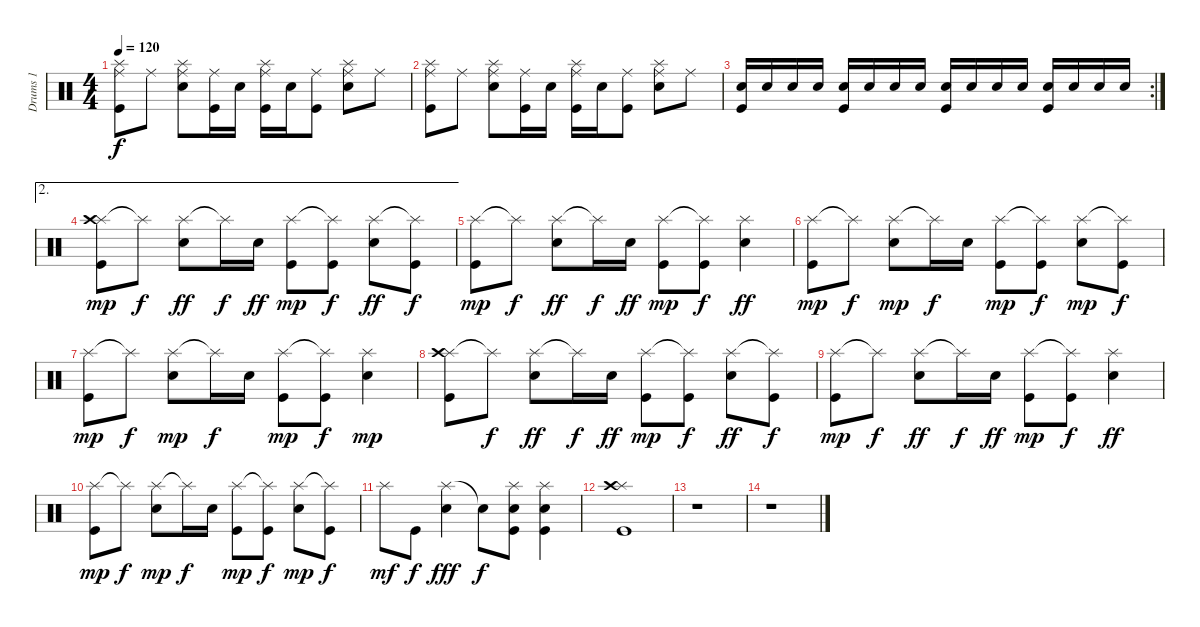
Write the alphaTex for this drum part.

\track ("Drums 1" "Drums 1") {instrument percussion}
\staff {score}
\articulation defaults
\ts (4 4)
\tempo 120
\clef neutral
\ks c
("Splash (hit)" "Kick (hit)" "Ride (middle)").8{dy f} "Ride (middle)".8 ("Splash (hit)" "Electric Snare (hit)" "Ride (middle)").8 ("Kick (hit)" "Ride (middle)").16 "Electric Snare (hit)".16 ("Splash (hit)" "Kick (hit)" "Ride (middle)").16 "Electric Snare (hit)".16 ("Kick (hit)" "Ride (middle)").8 ("Splash (hit)" "Electric Snare (hit)" "Ride (middle)").8 "Ride (middle)".8 |
("Splash (hit)" "Kick (hit)" "Ride (middle)").8 "Ride (middle)".8 ("Splash (hit)" "Electric Snare (hit)" "Ride (middle)").8 ("Kick (hit)" "Ride (middle)").16 "Electric Snare (hit)".16 ("Splash (hit)" "Kick (hit)" "Ride (middle)").16 "Electric Snare (hit)".16 ("Kick (hit)" "Ride (middle)").8 ("Splash (hit)" "Electric Snare (hit)" "Ride (middle)").8 "Ride (middle)".8 |
\rc 2
("Electric Snare (hit)" "Kick (hit)").16 "Electric Snare (hit)".16 "Electric Snare (hit)".16 "Electric Snare (hit)".16 ("Electric Snare (hit)" "Kick (hit)").16 "Electric Snare (hit)".16 "Electric Snare (hit)".16 "Electric Snare (hit)".16 ("Electric Snare (hit)" "Kick (hit)").16 "Electric Snare (hit)".16 "Electric Snare (hit)".16 "Electric Snare (hit)".16 ("Electric Snare (hit)" "Kick (hit)").16 "Electric Snare (hit)".16 "Electric Snare (hit)".16 "Electric Snare (hit)".16 |
\ae 2
("Splash (hit)" "Kick (hit)" "Crash high (hit)").8{dy mp} "Splash (hit)"{t}.8{dy f} ("Splash (hit)" "Electric Snare (hit)").8{dy ff} "Splash (hit)"{t}.16{dy f} "Electric Snare (hit)".16{dy ff} ("Splash (hit)" "Kick (hit)").8{dy mp} ("Splash (hit)"{t} "Kick (hit)").8{dy f} ("Splash (hit)" "Electric Snare (hit)").8{dy ff} ("Splash (hit)"{t} "Kick (hit)").8{dy f} |
("Splash (hit)" "Kick (hit)").8{dy mp} "Splash (hit)"{t}.8{dy f} ("Splash (hit)" "Electric Snare (hit)").8{dy ff} "Splash (hit)"{t}.16{dy f} "Electric Snare (hit)".16{dy ff} ("Splash (hit)" "Kick (hit)").8{dy mp} ("Splash (hit)"{t} "Kick (hit)").8{dy f} ("Splash (hit)" "Electric Snare (hit)").4{dy ff} |
("Splash (hit)" "Kick (hit)").8{dy mp} "Splash (hit)"{t}.8{dy f} ("Splash (hit)" "Electric Snare (hit)").8{dy mp} "Splash (hit)"{t}.16{dy f} "Electric Snare (hit)".16 ("Splash (hit)" "Kick (hit)").8{dy mp} ("Splash (hit)"{t} "Kick (hit)").8{dy f} ("Splash (hit)" "Electric Snare (hit)").8{dy mp} ("Splash (hit)"{t} "Kick (hit)").8{dy f} |
("Splash (hit)" "Kick (hit)").8{dy mp} "Splash (hit)"{t}.8{dy f} ("Splash (hit)" "Electric Snare (hit)").8{dy mp} "Splash (hit)"{t}.16{dy f} "Electric Snare (hit)".16 ("Splash (hit)" "Kick (hit)").8{dy mp} ("Splash (hit)"{t} "Kick (hit)").8{dy f} ("Splash (hit)" "Electric Snare (hit)").4{dy mp} |
("Splash (hit)" "Kick (hit)" "Crash high (hit)").8 "Splash (hit)"{t}.8{dy f} ("Splash (hit)" "Electric Snare (hit)").8{dy ff} "Splash (hit)"{t}.16{dy f} "Electric Snare (hit)".16{dy ff} ("Splash (hit)" "Kick (hit)").8{dy mp} ("Splash (hit)"{t} "Kick (hit)").8{dy f} ("Splash (hit)" "Electric Snare (hit)").8{dy ff} ("Splash (hit)"{t} "Kick (hit)").8{dy f} |
("Splash (hit)" "Kick (hit)").8{dy mp} "Splash (hit)"{t}.8{dy f} ("Splash (hit)" "Electric Snare (hit)").8{dy ff} "Splash (hit)"{t}.16{dy f} "Electric Snare (hit)".16{dy ff} ("Splash (hit)" "Kick (hit)").8{dy mp} ("Splash (hit)"{t} "Kick (hit)").8{dy f} ("Splash (hit)" "Electric Snare (hit)").4{dy ff} |
("Splash (hit)" "Kick (hit)").8{dy mp} "Splash (hit)"{t}.8{dy f} ("Splash (hit)" "Electric Snare (hit)").8{dy mp} "Splash (hit)"{t}.16{dy f} "Electric Snare (hit)".16 ("Splash (hit)" "Kick (hit)").8{dy mp} ("Splash (hit)"{t} "Kick (hit)").8{dy f} ("Splash (hit)" "Electric Snare (hit)").8{dy mp} ("Splash (hit)"{t} "Kick (hit)").8{dy f} |
"Splash (hit)".8{dy mf} "Kick (hit)".8{dy f} ("Splash (hit)" "Electric Snare (hit)").4{dy fff} "Snare (hit)"{t}.8{dy f} ("Splash (hit)" "Electric Snare (hit)" "Kick (hit)").8 ("Splash (hit)" "Electric Snare (hit)" "Kick (hit)").4 |
("Splash (hit)" "Kick (hit)" "Crash high (hit)").1 |
r.1 |
r.1
